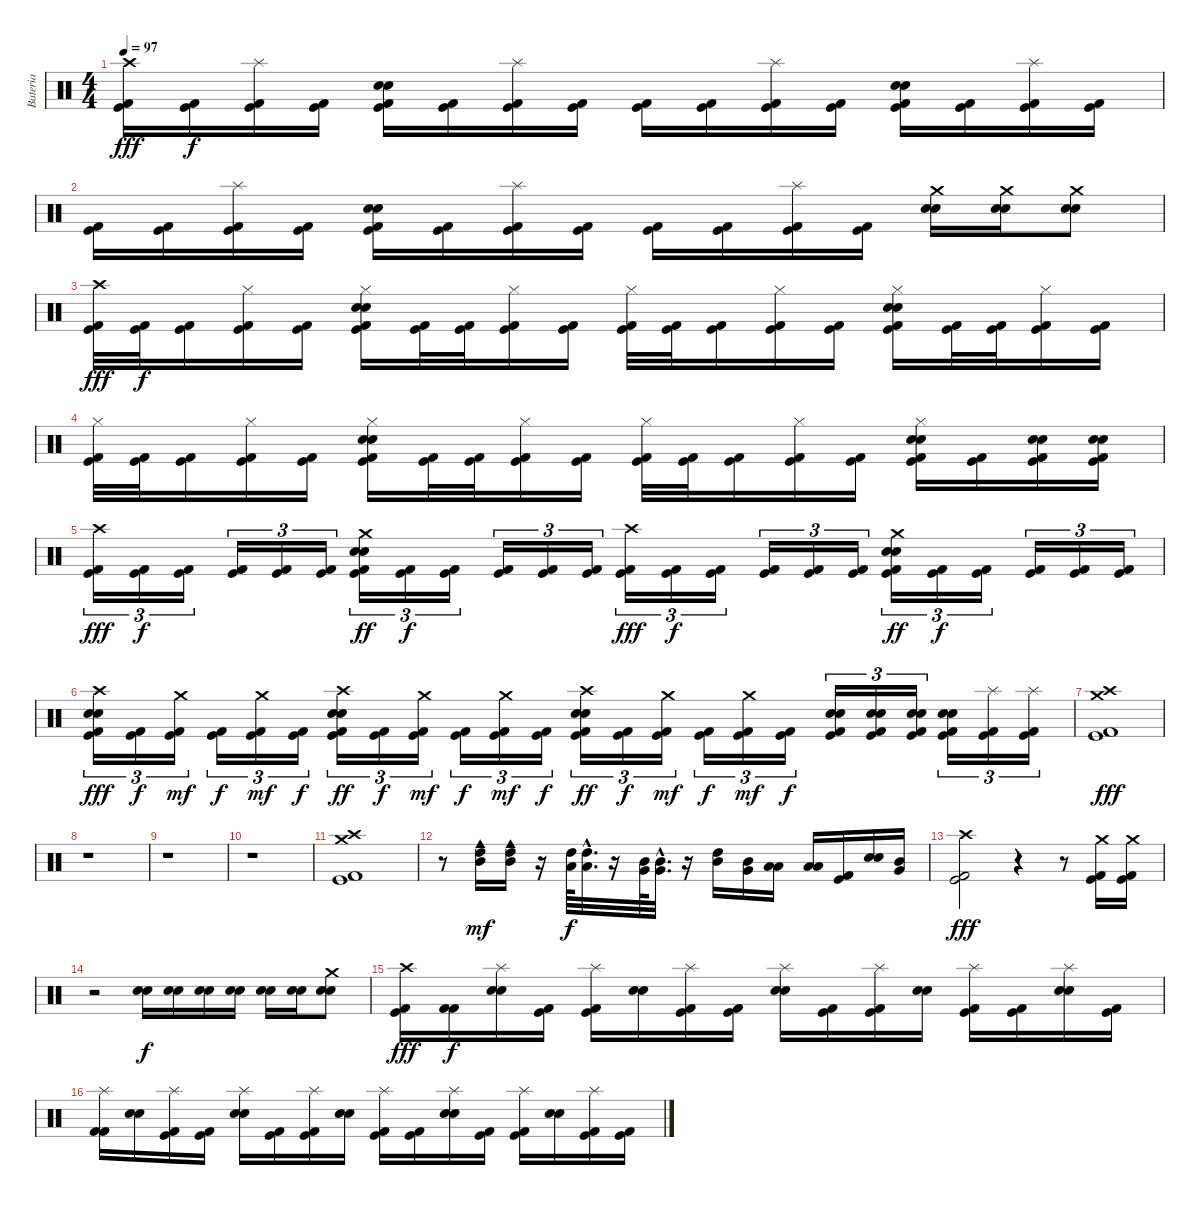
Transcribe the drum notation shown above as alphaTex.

\track ("Bateria" "Bateria") {instrument percussion}
\staff {score}
\articulation defaults
\ts (4 4)
\tempo 97
\clef neutral
\ks c
("Crash high (hit)" "Kick (hit) 2" "Kick (hit)").16{dy fff} ("Kick (hit) 2" "Kick (hit)").16{dy f} ("Splash (hit)" "Kick (hit) 2" "Kick (hit)").16 ("Kick (hit) 2" "Kick (hit)").16 ("Electric Snare (hit)" "Snare (hit) 2" "Kick (hit) 2" "Kick (hit)").16 ("Kick (hit) 2" "Kick (hit)").16 ("Splash (hit)" "Kick (hit) 2" "Kick (hit)").16 ("Kick (hit) 2" "Kick (hit)").16 ("Kick (hit) 2" "Kick (hit)").16 ("Kick (hit) 2" "Kick (hit)").16 ("Splash (hit)" "Kick (hit) 2" "Kick (hit)").16 ("Kick (hit) 2" "Kick (hit)").16 ("Electric Snare (hit)" "Snare (hit) 2" "Kick (hit) 2" "Kick (hit)").16 ("Kick (hit) 2" "Kick (hit)").16 ("Splash (hit)" "Kick (hit) 2" "Kick (hit)").16 ("Kick (hit) 2" "Kick (hit)").16 |
("Kick (hit) 2" "Kick (hit)").16 ("Kick (hit) 2" "Kick (hit)").16 ("Splash (hit)" "Kick (hit) 2" "Kick (hit)").16 ("Kick (hit) 2" "Kick (hit)").16 ("Electric Snare (hit)" "Snare (hit) 2" "Kick (hit) 2" "Kick (hit)").16 ("Kick (hit) 2" "Kick (hit)").16 ("Splash (hit)" "Kick (hit) 2" "Kick (hit)").16 ("Kick (hit) 2" "Kick (hit)").16 ("Kick (hit) 2" "Kick (hit)").16 ("Kick (hit) 2" "Kick (hit)").16 ("Splash (hit)" "Kick (hit) 2" "Kick (hit)").16 ("Kick (hit) 2" "Kick (hit)").16 ("Crash medium (hit)" "Electric Snare (hit)" "Snare (hit) 2").16 ("Crash medium (hit)" "Electric Snare (hit)" "Snare (hit) 2").16 ("Crash medium (hit)" "Electric Snare (hit)" "Snare (hit) 2").8 |
("Crash high (hit)" "Kick (hit) 2" "Kick (hit)").32{dy fff} ("Kick (hit) 2" "Kick (hit)").32{dy f} ("Kick (hit) 2" "Kick (hit)").16 ("Hi-Hat (closed)" "Kick (hit) 2" "Kick (hit)").16 ("Kick (hit) 2" "Kick (hit)").16 ("Hi-Hat (closed)" "Electric Snare (hit)" "Snare (hit) 2" "Kick (hit) 2" "Kick (hit)").16 ("Kick (hit) 2" "Kick (hit)").32 ("Kick (hit) 2" "Kick (hit)").32 ("Hi-Hat (closed)" "Kick (hit) 2" "Kick (hit)").16 ("Kick (hit) 2" "Kick (hit)").16 ("Hi-Hat (closed)" "Kick (hit) 2" "Kick (hit)").32 ("Kick (hit) 2" "Kick (hit)").32 ("Kick (hit) 2" "Kick (hit)").16 ("Hi-Hat (closed)" "Kick (hit) 2" "Kick (hit)").16 ("Kick (hit) 2" "Kick (hit)").16 ("Hi-Hat (closed)" "Electric Snare (hit)" "Snare (hit) 2" "Kick (hit) 2" "Kick (hit)").16 ("Kick (hit) 2" "Kick (hit)").32 ("Kick (hit) 2" "Kick (hit)").32 ("Hi-Hat (closed)" "Kick (hit) 2" "Kick (hit)").16 ("Kick (hit) 2" "Kick (hit)").16 |
("Hi-Hat (closed)" "Kick (hit) 2" "Kick (hit)").32 ("Kick (hit) 2" "Kick (hit)").32 ("Kick (hit) 2" "Kick (hit)").16 ("Hi-Hat (closed)" "Kick (hit) 2" "Kick (hit)").16 ("Kick (hit) 2" "Kick (hit)").16 ("Hi-Hat (closed)" "Electric Snare (hit)" "Snare (hit) 2" "Kick (hit) 2" "Kick (hit)").16 ("Kick (hit) 2" "Kick (hit)").32 ("Kick (hit) 2" "Kick (hit)").32 ("Hi-Hat (closed)" "Kick (hit) 2" "Kick (hit)").16 ("Kick (hit) 2" "Kick (hit)").16 ("Hi-Hat (closed)" "Kick (hit) 2" "Kick (hit)").32 ("Kick (hit) 2" "Kick (hit)").32 ("Kick (hit) 2" "Kick (hit)").16 ("Hi-Hat (closed)" "Kick (hit) 2" "Kick (hit)").16 ("Kick (hit) 2" "Kick (hit)").16 ("Hi-Hat (closed)" "Electric Snare (hit)" "Snare (hit) 2" "Kick (hit) 2" "Kick (hit)").16 ("Kick (hit) 2" "Kick (hit)").16 ("Electric Snare (hit)" "Snare (hit) 2" "Kick (hit) 2" "Kick (hit)").16 ("Electric Snare (hit)" "Snare (hit) 2" "Kick (hit) 2" "Kick (hit)").16 |
("Crash high (hit)" "Kick (hit) 2" "Kick (hit)").16{tu (3 2) dy fff} ("Kick (hit) 2" "Kick (hit)").16{tu (3 2) dy f} ("Kick (hit) 2" "Kick (hit)").16{tu (3 2)} ("Kick (hit) 2" "Kick (hit)").16{tu (3 2)} ("Kick (hit) 2" "Kick (hit)").16{tu (3 2)} ("Kick (hit) 2" "Kick (hit)").16{tu (3 2)} ("Crash medium (hit)" "Electric Snare (hit)" "Snare (hit) 2" "Kick (hit) 2" "Kick (hit)").16{tu (3 2) dy ff} ("Kick (hit) 2" "Kick (hit)").16{tu (3 2) dy f} ("Kick (hit) 2" "Kick (hit)").16{tu (3 2)} ("Kick (hit) 2" "Kick (hit)").16{tu (3 2)} ("Kick (hit) 2" "Kick (hit)").16{tu (3 2)} ("Kick (hit) 2" "Kick (hit)").16{tu (3 2)} ("Crash high (hit)" "Kick (hit) 2" "Kick (hit)").16{tu (3 2) dy fff} ("Kick (hit) 2" "Kick (hit)").16{tu (3 2) dy f} ("Kick (hit) 2" "Kick (hit)").16{tu (3 2)} ("Kick (hit) 2" "Kick (hit)").16{tu (3 2)} ("Kick (hit) 2" "Kick (hit)").16{tu (3 2)} ("Kick (hit) 2" "Kick (hit)").16{tu (3 2)} ("Crash medium (hit)" "Electric Snare (hit)" "Snare (hit) 2" "Kick (hit) 2" "Kick (hit)").16{tu (3 2) dy ff} ("Kick (hit) 2" "Kick (hit)").16{tu (3 2) dy f} ("Kick (hit) 2" "Kick (hit)").16{tu (3 2)} ("Kick (hit) 2" "Kick (hit)").16{tu (3 2)} ("Kick (hit) 2" "Kick (hit)").16{tu (3 2)} ("Kick (hit) 2" "Kick (hit)").16{tu (3 2)} |
("Crash high (hit)" "Electric Snare (hit)" "Snare (hit) 2" "Kick (hit) 2" "Kick (hit)").16{tu (3 2) dy fff} ("Kick (hit) 2" "Kick (hit)").16{tu (3 2) dy f} ("Crash medium (hit)" "Kick (hit) 2" "Kick (hit)").16{tu (3 2) dy mf} ("Kick (hit) 2" "Kick (hit)").16{tu (3 2) dy f} ("Crash medium (hit)" "Kick (hit) 2" "Kick (hit)").16{tu (3 2) dy mf} ("Kick (hit) 2" "Kick (hit)").16{tu (3 2) dy f} ("Crash high (hit)" "Electric Snare (hit)" "Snare (hit) 2" "Kick (hit) 2" "Kick (hit)").16{tu (3 2) dy ff} ("Kick (hit) 2" "Kick (hit)").16{tu (3 2) dy f} ("Crash medium (hit)" "Kick (hit) 2" "Kick (hit)").16{tu (3 2) dy mf} ("Kick (hit) 2" "Kick (hit)").16{tu (3 2) dy f} ("Crash medium (hit)" "Kick (hit) 2" "Kick (hit)").16{tu (3 2) dy mf} ("Kick (hit) 2" "Kick (hit)").16{tu (3 2) dy f} ("Crash high (hit)" "Electric Snare (hit)" "Snare (hit) 2" "Kick (hit) 2" "Kick (hit)").16{tu (3 2) dy ff} ("Kick (hit) 2" "Kick (hit)").16{tu (3 2) dy f} ("Crash medium (hit)" "Kick (hit) 2" "Kick (hit)").16{tu (3 2) dy mf} ("Kick (hit) 2" "Kick (hit)").16{tu (3 2) dy f} ("Crash medium (hit)" "Kick (hit) 2" "Kick (hit)").16{tu (3 2) dy mf} ("Kick (hit) 2" "Kick (hit)").16{tu (3 2) dy f} ("Electric Snare (hit)" "Snare (hit) 2" "Kick (hit) 2" "Kick (hit)").16{tu (3 2)} ("Electric Snare (hit)" "Snare (hit) 2" "Kick (hit) 2" "Kick (hit)").16{tu (3 2)} ("Electric Snare (hit)" "Snare (hit) 2" "Kick (hit) 2" "Kick (hit)").16{tu (3 2)} ("Electric Snare (hit)" "Snare (hit) 2" "Kick (hit) 2" "Kick (hit)").16{tu (3 2)} ("Splash (hit)" "Kick (hit) 2" "Kick (hit)").16{tu (3 2)} ("Splash (hit)" "Kick (hit) 2" "Kick (hit)").16{tu (3 2)} |
("Crash high (hit)" "Crash medium (hit)" "Kick (hit) 2" "Kick (hit)").1{dy fff} |
r.1 |
r.1 |
r.1 |
("Crash high (hit)" "Crash medium (hit)" "Kick (hit) 2" "Kick (hit)").1 |
r.8 ("Cowbell medium (hit)" "High Tom (hit)" "Mid Tom (hit)").16{dy mf} ("Cowbell medium (hit)" "High Tom (hit)" "Mid Tom (hit)").16 r.16 ("High Tom (hit)" "Low Tom (hit)").64{dy f} ("High Tom (hit)"{hac} "Low Tom (hit)"{hac}).32{d} r.16 ("Mid Tom (hit)" "Very Low Tom (hit)").64 ("Mid Tom (hit)"{hac} "Very Low Tom (hit)"{hac}).32{d} r.16 ("High Tom (hit)" "Mid Tom (hit)").16 ("Mid Tom (hit)" "Very Low Tom (hit)").16 ("Low Tom (hit)" "Low Floor Tom (hit)").16 ("Low Tom (hit)" "Low Floor Tom (hit)").16 ("Kick (hit) 2" "Kick (hit)").16 ("Electric Snare (hit)" "Snare (hit) 2").16 ("Mid Tom (hit)" "Very Low Tom (hit)").16 |
("Crash high (hit)" "Kick (hit) 2" "Kick (hit)").2{dy fff} r.4 r.8 ("Crash medium (hit)" "Kick (hit) 2" "Kick (hit)").16 ("Crash medium (hit)" "Kick (hit) 2" "Kick (hit)").16 |
r.2 ("Electric Snare (hit)" "Snare (hit) 2").16{dy f} ("Electric Snare (hit)" "Snare (hit) 2").16 ("Electric Snare (hit)" "Snare (hit) 2").16 ("Electric Snare (hit)" "Snare (hit) 2").16 ("Electric Snare (hit)" "Snare (hit) 2").16 ("Electric Snare (hit)" "Snare (hit) 2").16 ("Crash medium (hit)" "Electric Snare (hit)" "Snare (hit) 2").8 |
("Crash high (hit)" "Kick (hit) 2" "Kick (hit)").16{dy fff} ("Kick (hit) 2" "Kick (hit) 2").16{dy f} ("Splash (hit)" "Electric Snare (hit)" "Snare (hit) 2").16 ("Kick (hit) 2" "Kick (hit)").16 ("Splash (hit)" "Kick (hit) 2" "Kick (hit)").16 ("Electric Snare (hit)" "Snare (hit) 2").16 ("Splash (hit)" "Kick (hit) 2" "Kick (hit)").16 ("Kick (hit) 2" "Kick (hit)").16 ("Splash (hit)" "Electric Snare (hit)" "Snare (hit) 2").16 ("Kick (hit) 2" "Kick (hit)").16 ("Splash (hit)" "Kick (hit) 2" "Kick (hit)").16 ("Electric Snare (hit)" "Snare (hit) 2").16 ("Splash (hit)" "Kick (hit) 2" "Kick (hit)").16 ("Kick (hit) 2" "Kick (hit)").16 ("Splash (hit)" "Electric Snare (hit)" "Snare (hit) 2").16 ("Kick (hit) 2" "Kick (hit)").16 |
("Splash (hit)" "Kick (hit) 2" "Kick (hit) 2").16 ("Electric Snare (hit)" "Snare (hit) 2").16 ("Splash (hit)" "Kick (hit) 2" "Kick (hit)").16 ("Kick (hit) 2" "Kick (hit)").16 ("Splash (hit)" "Electric Snare (hit)" "Snare (hit) 2").16 ("Kick (hit) 2" "Kick (hit)").16 ("Splash (hit)" "Kick (hit) 2" "Kick (hit)").16 ("Electric Snare (hit)" "Snare (hit) 2").16 ("Splash (hit)" "Kick (hit) 2" "Kick (hit)").16 ("Kick (hit) 2" "Kick (hit)").16 ("Splash (hit)" "Electric Snare (hit)" "Snare (hit) 2").16 ("Kick (hit) 2" "Kick (hit)").16 ("Splash (hit)" "Kick (hit) 2" "Kick (hit)").16 ("Electric Snare (hit)" "Snare (hit) 2").16 ("Splash (hit)" "Kick (hit) 2" "Kick (hit)").16 ("Kick (hit) 2" "Kick (hit)").16
